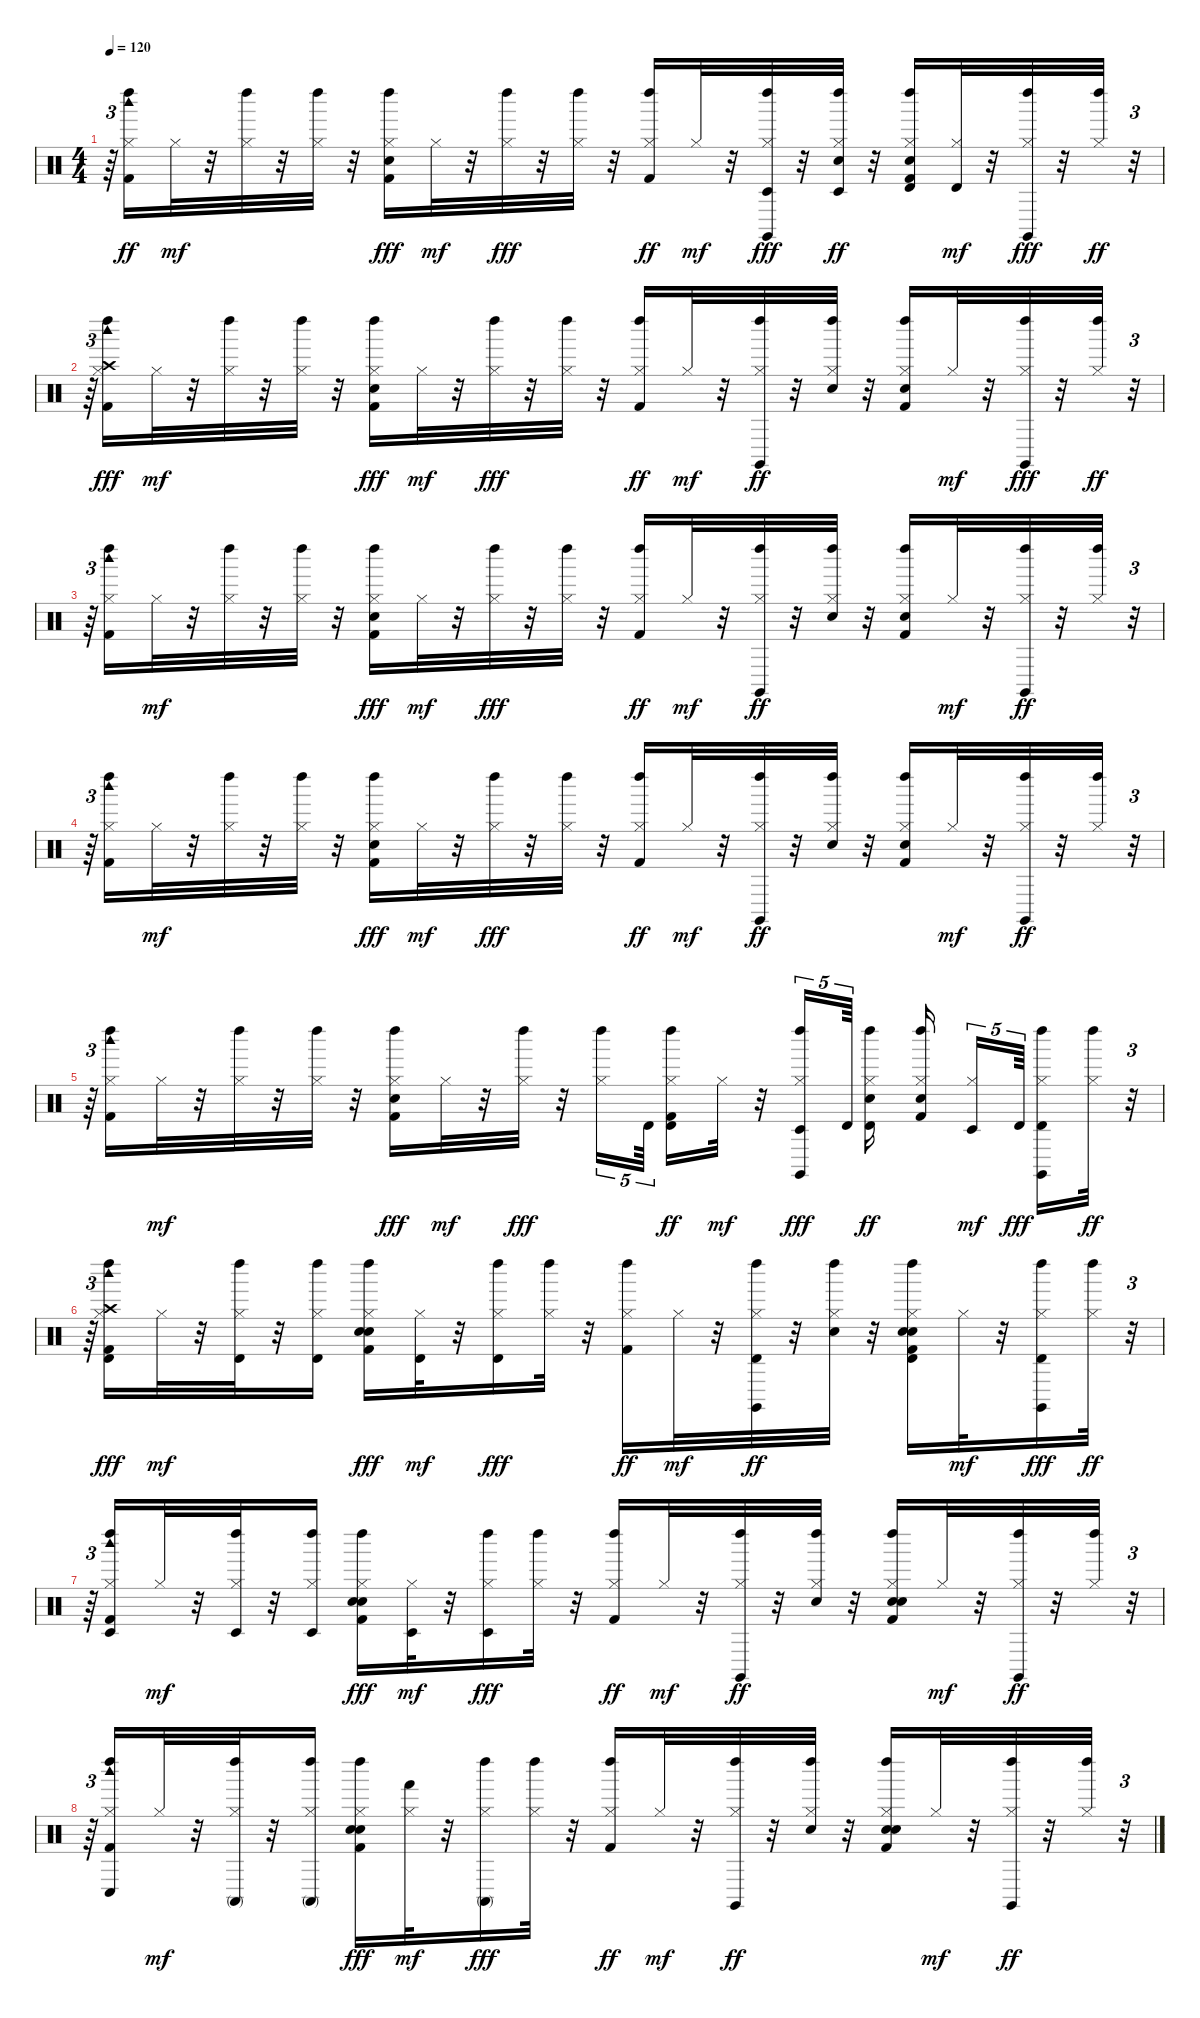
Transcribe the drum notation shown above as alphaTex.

\track "" {instrument percussion}
\staff {score}
\articulation defaults
\ts (4 4)
\tempo 120
\clef neutral
\ks c
r.64{tu (3 2) dy ff} ("Kick (hit) 2" "Hi-Hat (closed)" "Left Maraca (hit)" "Woodblock high (hit)").16 "Hi-Hat (closed)".32{dy mf} r.32 ("Hi-Hat (closed)" "Left Maraca (hit)").32 r.32 ("Hi-Hat (closed)" "Left Maraca (hit)").32 r.32 ("Kick (hit) 2" "Electric Snare (hit)" "Hi-Hat (closed)" "Left Maraca (hit)").16{dy fff} "Hi-Hat (closed)".32{dy mf} r.32 ("Hi-Hat (closed)" "Left Maraca (hit)").32{dy fff} r.32 ("Hi-Hat (closed)" "Left Maraca (hit)").32 r.32 ("Kick (hit) 2" "Hi-Hat (closed)" "Left Maraca (hit)").16{dy ff} "Hi-Hat (closed)".32{dy mf} r.32 ("Timbale low (hit)" "Hi-Hat (closed)" "Left Maraca (hit)" "Claves (hit)").32{dy fff} r.32 ("Electric Snare (hit)" "Timbale low (hit)" "Hi-Hat (closed)" "Left Maraca (hit)").32{dy ff} r.32 ("Kick (hit) 2" "Electric Snare (hit)" "Timbale high (hit)" "Hi-Hat (closed)" "Left Maraca (hit)").16 ("Timbale high (hit)" "Hi-Hat (closed)").32{dy mf} r.32 ("Hi-Hat (closed)" "Left Maraca (hit)" "Claves (hit)").32{dy fff} r.32 ("Hi-Hat (closed)" "Left Maraca (hit)").32{dy ff} r.32{tu (3 2)} |
r.64{tu (3 2)} ("Kick (hit) 2" "Hi-Hat (closed)" "Left Maraca (hit)" "Crash high (hit)" "Woodblock high (hit)").16{dy fff} "Hi-Hat (closed)".32{dy mf} r.32 ("Hi-Hat (closed)" "Left Maraca (hit)").32 r.32 ("Hi-Hat (closed)" "Left Maraca (hit)").32 r.32 ("Kick (hit) 2" "Electric Snare (hit)" "Hi-Hat (closed)" "Left Maraca (hit)").16{dy fff} "Hi-Hat (closed)".32{dy mf} r.32 ("Hi-Hat (closed)" "Left Maraca (hit)").32{dy fff} r.32 ("Hi-Hat (closed)" "Left Maraca (hit)").32 r.32 ("Kick (hit) 2" "Hi-Hat (closed)" "Left Maraca (hit)").16{dy ff} "Hi-Hat (closed)".32{dy mf} r.32 ("Hi-Hat (closed)" "Left Maraca (hit)" "Claves (hit)").32{dy ff} r.32 ("Electric Snare (hit)" "Hi-Hat (closed)" "Left Maraca (hit)").32 r.32 ("Kick (hit) 2" "Electric Snare (hit)" "Hi-Hat (closed)" "Left Maraca (hit)").16 "Hi-Hat (closed)".32{dy mf} r.32 ("Hi-Hat (closed)" "Left Maraca (hit)" "Claves (hit)").32{dy fff} r.32 ("Hi-Hat (closed)" "Left Maraca (hit)").32{dy ff} r.32{tu (3 2)} |
r.64{tu (3 2)} ("Kick (hit) 2" "Hi-Hat (closed)" "Left Maraca (hit)" "Woodblock high (hit)").16 "Hi-Hat (closed)".32{dy mf} r.32 ("Hi-Hat (closed)" "Left Maraca (hit)").32 r.32 ("Hi-Hat (closed)" "Left Maraca (hit)").32 r.32 ("Kick (hit) 2" "Electric Snare (hit)" "Hi-Hat (closed)" "Left Maraca (hit)").16{dy fff} "Hi-Hat (closed)".32{dy mf} r.32 ("Hi-Hat (closed)" "Left Maraca (hit)").32{dy fff} r.32 ("Hi-Hat (closed)" "Left Maraca (hit)").32 r.32 ("Kick (hit) 2" "Hi-Hat (closed)" "Left Maraca (hit)").16{dy ff} "Hi-Hat (closed)".32{dy mf} r.32 ("Hi-Hat (closed)" "Left Maraca (hit)" "Claves (hit)").32{dy ff} r.32 ("Electric Snare (hit)" "Hi-Hat (closed)" "Left Maraca (hit)").32 r.32 ("Kick (hit) 2" "Electric Snare (hit)" "Hi-Hat (closed)" "Left Maraca (hit)").16 "Hi-Hat (closed)".32{dy mf} r.32 ("Hi-Hat (closed)" "Left Maraca (hit)" "Claves (hit)").32{dy ff} r.32 ("Hi-Hat (closed)" "Left Maraca (hit)").32 r.32{tu (3 2)} |
r.64{tu (3 2)} ("Kick (hit) 2" "Hi-Hat (closed)" "Left Maraca (hit)" "Woodblock high (hit)").16 "Hi-Hat (closed)".32{dy mf} r.32 ("Hi-Hat (closed)" "Left Maraca (hit)").32 r.32 ("Hi-Hat (closed)" "Left Maraca (hit)").32 r.32 ("Kick (hit) 2" "Electric Snare (hit)" "Hi-Hat (closed)" "Left Maraca (hit)").16{dy fff} "Hi-Hat (closed)".32{dy mf} r.32 ("Hi-Hat (closed)" "Left Maraca (hit)").32{dy fff} r.32 ("Hi-Hat (closed)" "Left Maraca (hit)").32 r.32 ("Kick (hit) 2" "Hi-Hat (closed)" "Left Maraca (hit)").16{dy ff} "Hi-Hat (closed)".32{dy mf} r.32 ("Hi-Hat (closed)" "Left Maraca (hit)" "Claves (hit)").32{dy ff} r.32 ("Electric Snare (hit)" "Hi-Hat (closed)" "Left Maraca (hit)").32 r.32 ("Kick (hit) 2" "Electric Snare (hit)" "Hi-Hat (closed)" "Left Maraca (hit)").16 "Hi-Hat (closed)".32{dy mf} r.32 ("Hi-Hat (closed)" "Left Maraca (hit)" "Claves (hit)").32{dy ff} r.32 ("Hi-Hat (closed)" "Left Maraca (hit)").32 r.32{tu (3 2)} |
r.64{tu (3 2)} ("Kick (hit) 2" "Hi-Hat (closed)" "Left Maraca (hit)" "Woodblock high (hit)").16 "Hi-Hat (closed)".32{dy mf} r.32 ("Hi-Hat (closed)" "Left Maraca (hit)").32 r.32 ("Hi-Hat (closed)" "Left Maraca (hit)").32 r.32 ("Kick (hit) 2" "Electric Snare (hit)" "Hi-Hat (closed)" "Left Maraca (hit)").16{dy fff} "Hi-Hat (closed)".32{dy mf} r.32 ("Hi-Hat (closed)" "Left Maraca (hit)").32{dy fff} r.32 ("Hi-Hat (closed)" "Left Maraca (hit)").16{tu (5 4)} "Timbale high (hit)".64{tu (5 4)} ("Kick (hit) 2" "Timbale high (hit)" "Hi-Hat (closed)" "Left Maraca (hit)").16{dy ff} "Hi-Hat (closed)".32{dy mf} r.32 ("Timbale low (hit)" "Hi-Hat (closed)" "Left Maraca (hit)" "Claves (hit)").16{tu (5 4) dy fff} "Timbale high (hit)".64{tu (5 4) beam splitsecondary} ("Electric Snare (hit)" "Timbale high (hit)" "Hi-Hat (closed)" "Left Maraca (hit)").16{dy ff} ("Kick (hit) 2" "Electric Snare (hit)" "Hi-Hat (closed)" "Left Maraca (hit)").16{beam splitsecondary} ("Timbale low (hit)" "Hi-Hat (closed)").16{tu (5 4) dy mf} "Timbale high (hit)".64{tu (5 4) dy fff beam splitsecondary} ("Timbale high (hit)" "Hi-Hat (closed)" "Left Maraca (hit)" "Claves (hit)").16 ("Hi-Hat (closed)" "Left Maraca (hit)").32{dy ff} r.32{tu (3 2)} |
r.64{tu (3 2)} ("Timbale high (hit)" "Kick (hit) 2" "Hi-Hat (closed)" "Left Maraca (hit)" "Crash high (hit)" "Woodblock high (hit)").16{dy fff} "Hi-Hat (closed)".32{dy mf} r.32 ("Timbale high (hit)" "Hi-Hat (closed)" "Left Maraca (hit)").32 r.32 ("Timbale high (hit)" "Hi-Hat (closed)" "Left Maraca (hit)").16 ("Kick (hit) 2" "Electric Snare (hit)" "Hand Clap (hit)" "Hi-Hat (closed)" "Left Maraca (hit)").16{dy fff} ("Timbale high (hit)" "Hi-Hat (closed)").32{dy mf} r.32 ("Timbale high (hit)" "Hi-Hat (closed)" "Left Maraca (hit)").16{dy fff} ("Hi-Hat (closed)" "Left Maraca (hit)").32 r.32 ("Kick (hit) 2" "Hi-Hat (closed)" "Left Maraca (hit)").16{dy ff} "Hi-Hat (closed)".32{dy mf} r.32 ("Timbale high (hit)" "Hi-Hat (closed)" "Left Maraca (hit)" "Claves (hit)").32{dy ff} r.32 ("Electric Snare (hit)" "Hi-Hat (closed)" "Left Maraca (hit)").32 r.32 ("Timbale high (hit)" "Kick (hit) 2" "Electric Snare (hit)" "Hand Clap (hit)" "Hi-Hat (closed)" "Left Maraca (hit)").16 "Hi-Hat (closed)".32{dy mf} r.32 ("Timbale high (hit)" "Hi-Hat (closed)" "Left Maraca (hit)" "Claves (hit)").16{dy fff} ("Hi-Hat (closed)" "Left Maraca (hit)").32{dy ff} r.32{tu (3 2)} |
r.64{tu (3 2)} ("Timbale low (hit)" "Kick (hit) 2" "Hi-Hat (closed)" "Left Maraca (hit)" "Woodblock high (hit)").16 "Hi-Hat (closed)".32{dy mf} r.32 ("Timbale low (hit)" "Hi-Hat (closed)" "Left Maraca (hit)").32 r.32 ("Timbale low (hit)" "Hi-Hat (closed)" "Left Maraca (hit)").16 ("Kick (hit) 2" "Electric Snare (hit)" "Hand Clap (hit)" "Hi-Hat (closed)" "Left Maraca (hit)").16{dy fff} ("Timbale low (hit)" "Hi-Hat (closed)").32{dy mf} r.32 ("Timbale low (hit)" "Hi-Hat (closed)" "Left Maraca (hit)").16{dy fff} ("Hi-Hat (closed)" "Left Maraca (hit)").32 r.32 ("Kick (hit) 2" "Hi-Hat (closed)" "Left Maraca (hit)").16{dy ff} "Hi-Hat (closed)".32{dy mf} r.32 ("Hi-Hat (closed)" "Left Maraca (hit)" "Claves (hit)").32{dy ff} r.32 ("Electric Snare (hit)" "Hi-Hat (closed)" "Left Maraca (hit)").32 r.32 ("Kick (hit) 2" "Electric Snare (hit)" "Hand Clap (hit)" "Hi-Hat (closed)" "Left Maraca (hit)").16 "Hi-Hat (closed)".32{dy mf} r.32 ("Hi-Hat (closed)" "Left Maraca (hit)" "Claves (hit)").32{dy ff} r.32 ("Hi-Hat (closed)" "Left Maraca (hit)").32 r.32{tu (3 2)} |
r.64{tu (3 2)} ("Conga low (hit)" "Kick (hit) 2" "Hi-Hat (closed)" "Left Maraca (hit)" "Woodblock high (hit)").16 "Hi-Hat (closed)".32{dy mf} r.32 ("Conga high (mute)" "Hi-Hat (closed)" "Left Maraca (hit)").32 r.32 ("Conga high (mute)" "Hi-Hat (closed)" "Left Maraca (hit)").16 ("Kick (hit) 2" "Electric Snare (hit)" "Hand Clap (hit)" "Hi-Hat (closed)" "Left Maraca (hit)").16{dy fff} ("Hand (hit)" "Hi-Hat (closed)").32{dy mf} r.32 ("Conga high (mute)" "Hi-Hat (closed)" "Left Maraca (hit)").16{dy fff} ("Hi-Hat (closed)" "Left Maraca (hit)").32 r.32 ("Kick (hit) 2" "Hi-Hat (closed)" "Left Maraca (hit)").16{dy ff} "Hi-Hat (closed)".32{dy mf} r.32 ("Hi-Hat (closed)" "Left Maraca (hit)" "Claves (hit)").32{dy ff} r.32 ("Electric Snare (hit)" "Hi-Hat (closed)" "Left Maraca (hit)").32 r.32 ("Kick (hit) 2" "Electric Snare (hit)" "Hand Clap (hit)" "Hi-Hat (closed)" "Left Maraca (hit)").16 "Hi-Hat (closed)".32{dy mf} r.32 ("Hi-Hat (closed)" "Left Maraca (hit)" "Claves (hit)").32{dy ff} r.32 ("Hi-Hat (closed)" "Left Maraca (hit)").32 r.32{tu (3 2)}
